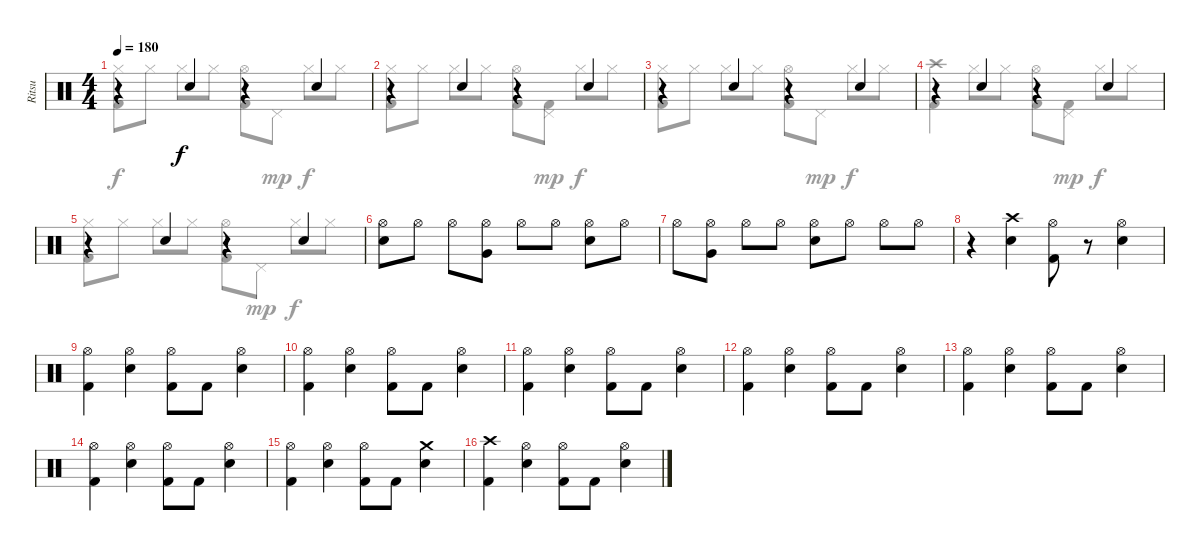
\track ("Ritsu" "Ritsu") {instrument percussion}
\staff {score}
\articulation defaults
\voice
\ts (4 4)
\tempo 180
\clef neutral
\ks c
r.4{dy f} "Snare (hit) 2".4 r.4 "Snare (hit) 2".4 |
r.4 "Snare (hit) 2".4 r.4 "Snare (hit) 2".4 |
r.4 "Snare (hit) 2".4 r.4 "Snare (hit) 2".4 |
r.4 "Snare (hit) 2".4 r.4 "Snare (hit) 2".4 |
r.4 "Snare (hit) 2".4 r.4 "Snare (hit) 2".4 |
("Hi-Hat (open)" "Snare (hit) 2").8 "Hi-Hat (open)".8 "Hi-Hat (open)".8 ("Hi-Hat (open)" "Very Low Tom (hit)").8 "Hi-Hat (open)".8 "Hi-Hat (open)".8 ("Hi-Hat (open)" "Snare (hit) 2").8 "Hi-Hat (open)".8 |
"Hi-Hat (open)".8 ("Hi-Hat (open)" "Very Low Tom (hit)").8 "Hi-Hat (open)".8 "Hi-Hat (open)".8 ("Hi-Hat (open)" "Snare (hit) 2").8 "Hi-Hat (open)".8 "Hi-Hat (open)".8 "Hi-Hat (open)".8 |
r.4 ("Crash high (hit)" "Snare (hit) 2").4 ("Hi-Hat (open)" "Kick (hit) 2").8 r.8 ("Hi-Hat (open)" "Snare (hit) 2").4 |
("Hi-Hat (open)" "Kick (hit) 2").4 ("Hi-Hat (open)" "Snare (hit) 2").4 ("Hi-Hat (open)" "Kick (hit) 2").8 "Kick (hit) 2".8 ("Hi-Hat (open)" "Snare (hit) 2").4 |
("Hi-Hat (open)" "Kick (hit) 2").4 ("Hi-Hat (open)" "Snare (hit) 2").4 ("Hi-Hat (open)" "Kick (hit) 2").8 "Kick (hit) 2".8 ("Hi-Hat (open)" "Snare (hit) 2").4 |
("Hi-Hat (open)" "Kick (hit) 2").4 ("Hi-Hat (open)" "Snare (hit) 2").4 ("Hi-Hat (open)" "Kick (hit) 2").8 "Kick (hit) 2".8 ("Hi-Hat (open)" "Snare (hit) 2").4 |
("Hi-Hat (open)" "Kick (hit) 2").4 ("Hi-Hat (open)" "Snare (hit) 2").4 ("Hi-Hat (open)" "Kick (hit) 2").8 "Kick (hit) 2".8 ("Hi-Hat (open)" "Snare (hit) 2").4 |
("Hi-Hat (open)" "Kick (hit) 2").4 ("Hi-Hat (open)" "Snare (hit) 2").4 ("Hi-Hat (open)" "Kick (hit) 2").8 "Kick (hit) 2".8 ("Hi-Hat (open)" "Snare (hit) 2").4 |
("Hi-Hat (open)" "Kick (hit) 2").4 ("Hi-Hat (open)" "Snare (hit) 2").4 ("Hi-Hat (open)" "Kick (hit) 2").8 "Kick (hit) 2".8 ("Hi-Hat (open)" "Snare (hit) 2").4 |
("Hi-Hat (open)" "Kick (hit) 2").4 ("Hi-Hat (open)" "Snare (hit) 2").4 ("Hi-Hat (open)" "Kick (hit) 2").8 "Kick (hit) 2".8 ("Crash medium (hit)" "Snare (hit) 2").4 |
("Crash high (hit)" "Kick (hit) 2").4 ("Hi-Hat (open)" "Snare (hit) 2").4 ("Hi-Hat (open)" "Kick (hit) 2").8 "Kick (hit) 2".8 ("Hi-Hat (open)" "Snare (hit) 2").4
\voice
\clef neutral
\ottava regular
\simile none
\ks c
("Hi-Hat (closed)" "Kick (hit) 2").8{dy f} "Hi-Hat (closed)".8 "Hi-Hat (closed)".8 "Hi-Hat (closed)".8 ("Hi-Hat (open)" "Kick (hit) 2").8 "Pedal Hi-Hat (hit)".8{dy mp} "Hi-Hat (closed)".8{dy f} "Hi-Hat (closed)".8 |
("Hi-Hat (closed)" "Kick (hit) 2").8 "Hi-Hat (closed)".8 "Hi-Hat (closed)".8 "Hi-Hat (closed)".8 ("Hi-Hat (open)" "Kick (hit) 2").8 ("Pedal Hi-Hat (hit)" "Kick (hit) 2").8{dy mp} "Hi-Hat (closed)".8{dy f} "Hi-Hat (closed)".8 |
("Hi-Hat (closed)" "Kick (hit) 2").8 "Hi-Hat (closed)".8 "Hi-Hat (closed)".8 "Hi-Hat (closed)".8 ("Hi-Hat (open)" "Kick (hit) 2").8 "Pedal Hi-Hat (hit)".8{dy mp} "Hi-Hat (closed)".8{dy f} "Hi-Hat (closed)".8 |
("Crash high (hit)" "Kick (hit) 2").4 "Hi-Hat (closed)".8 "Hi-Hat (closed)".8 ("Hi-Hat (open)" "Kick (hit) 2").8 ("Pedal Hi-Hat (hit)" "Kick (hit) 2").8{dy mp} "Hi-Hat (closed)".8{dy f} "Hi-Hat (closed)".8 |
("Hi-Hat (closed)" "Kick (hit) 2").8 "Hi-Hat (closed)".8 "Hi-Hat (closed)".8 "Hi-Hat (closed)".8 ("Hi-Hat (open)" "Kick (hit) 2").8 "Pedal Hi-Hat (hit)".8{dy mp} "Hi-Hat (closed)".8{dy f} "Hi-Hat (closed)".8 |
|
|
|
|
|
|
|
|
|
|
